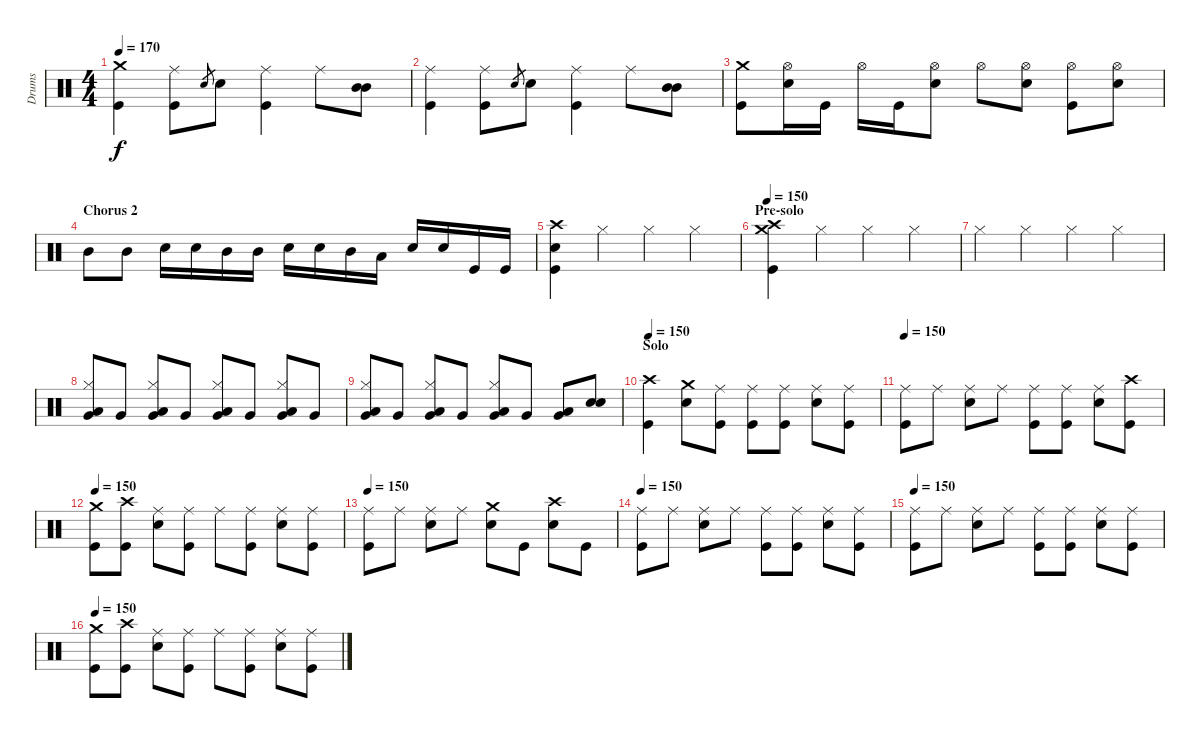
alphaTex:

\track ("Drums" "Drums") {instrument percussion}
\staff {score}
\articulation defaults
\ts (4 4)
\tempo 170
\clef neutral
\ks c
("Crash medium (hit)" "Kick (hit)").4{dy f} ("Ride (middle)" "Kick (hit)").8 "Snare (hit) 2".8{gr} "Snare (hit) 2".8 ("Ride (middle)" "Kick (hit)").4 "Ride (middle)".8 ("Mid Tom (hit)" "Mid Tom (hit)").8 |
("Ride (middle)" "Kick (hit)").4 ("Ride (middle)" "Kick (hit)").8 "Snare (hit) 2".8{gr} "Snare (hit) 2".8 ("Ride (middle)" "Kick (hit)").4 "Ride (middle)".8 ("Mid Tom (hit)" "Mid Tom (hit)").8 |
("Crash medium (hit)" "Kick (hit)").8 ("Hi-Hat (open)" "Snare (hit) 2").16 "Kick (hit)".16 "Hi-Hat (open)".16 "Kick (hit)".16 ("Hi-Hat (open)" "Snare (hit) 2").8 "Hi-Hat (open)".8 ("Hi-Hat (open)" "Snare (hit) 2").8 ("Hi-Hat (open)" "Kick (hit)").8 ("Hi-Hat (open)" "Snare (hit) 2").8 |
\section ("" "Chorus 2")
"Mid Tom (hit)".8 "Mid Tom (hit)".8 "Snare (hit) 2".16 "Snare (hit) 2".16 "Mid Tom (hit)".16 "Mid Tom (hit)".16 "Snare (hit) 2".16 "Snare (hit) 2".16 "Mid Tom (hit)".16 "Low Tom (hit)".16 "Snare (hit) 2".16 "Snare (hit) 2".16 "Kick (hit)".16 "Kick (hit)".16 |
("Crash high (hit)" "Snare (hit) 2" "Kick (hit)").4 "Hi-Hat (closed)".4{volume 9} "Hi-Hat (closed)".4{volume 9} "Hi-Hat (closed)".4{volume 9} |
\section ("" "Pre-solo")
\tempo 150
("Crash medium (hit)" "Crash high (hit)" "Kick (hit)").4 "Hi-Hat (closed)".4 "Hi-Hat (closed)".4 "Hi-Hat (closed)".4 |
"Hi-Hat (closed)".4 "Hi-Hat (closed)".4 "Hi-Hat (closed)".4 "Hi-Hat (closed)".4 |
("Hi-Hat (closed)" "Low Tom (hit)" "Very Low Tom (hit)").8 "Very Low Tom (hit)".8 ("Hi-Hat (closed)" "Low Tom (hit)" "Very Low Tom (hit)").8 "Very Low Tom (hit)".8 ("Hi-Hat (closed)" "Low Tom (hit)" "Very Low Tom (hit)").8 "Very Low Tom (hit)".8 ("Hi-Hat (closed)" "Low Tom (hit)" "Very Low Tom (hit)").8 "Very Low Tom (hit)".8 |
("Hi-Hat (closed)" "Low Tom (hit)" "Very Low Tom (hit)").8 "Very Low Tom (hit)".8 ("Hi-Hat (closed)" "Low Tom (hit)" "Very Low Tom (hit)").8 "Very Low Tom (hit)".8 ("Hi-Hat (closed)" "Low Tom (hit)" "Very Low Tom (hit)").8 "Very Low Tom (hit)".8 ("Low Tom (hit)" "Very Low Tom (hit)").8 ("Snare (hit) 2" "Snare (hit) 2").8 |
\section ("" "Solo")
\tempo 150
("Crash high (hit)" "Kick (hit)").4 ("Crash medium (hit)" "Snare (hit) 2").8 ("Ride (middle)" "Kick (hit)").8 ("Ride (middle)" "Kick (hit)").8 ("Ride (middle)" "Kick (hit)").8 ("Ride (middle)" "Snare (hit) 2").8 ("Ride (middle)" "Kick (hit)").8 |
\tempo 150
("Ride (middle)" "Kick (hit)").8 "Ride (middle)".8 ("Ride (middle)" "Snare (hit) 2").8 "Ride (middle)".8 ("Ride (middle)" "Kick (hit)").8 ("Ride (middle)" "Kick (hit)").8 ("Ride (middle)" "Snare (hit) 2").8 ("Crash high (hit)" "Kick (hit)").8 |
\tempo 150
("Crash medium (hit)" "Kick (hit)").8 ("Crash high (hit)" "Kick (hit)").8 ("Ride (middle)" "Snare (hit) 2").8 ("Ride (middle)" "Kick (hit)").8 "Ride (middle)".8 ("Ride (middle)" "Kick (hit)").8 ("Ride (middle)" "Snare (hit) 2").8 ("Ride (middle)" "Kick (hit)").8 |
\tempo 150
("Ride (middle)" "Kick (hit)").8 "Ride (middle)".8 ("Ride (middle)" "Snare (hit) 2").8 "Ride (middle)".8 ("Crash medium (hit)" "Snare (hit) 2").8 "Kick (hit)".8 ("Crash high (hit)" "Snare (hit) 2").8 "Kick (hit)".8 |
\tempo 150
("Ride (middle)" "Kick (hit)").8 "Ride (middle)".8 ("Ride (middle)" "Snare (hit) 2").8 "Ride (middle)".8 ("Ride (middle)" "Kick (hit)").8 ("Ride (middle)" "Kick (hit)").8 ("Ride (middle)" "Snare (hit) 2").8 ("Ride (middle)" "Kick (hit)").8 |
\tempo 150
("Ride (middle)" "Kick (hit)").8 "Ride (middle)".8 ("Ride (middle)" "Snare (hit) 2").8 "Ride (middle)".8 ("Ride (middle)" "Kick (hit)").8 ("Ride (middle)" "Kick (hit)").8 ("Ride (middle)" "Snare (hit) 2").8 ("Ride (middle)" "Kick (hit)").8 |
\tempo 150
("Crash medium (hit)" "Kick (hit)").8 ("Crash high (hit)" "Kick (hit)").8 ("Ride (middle)" "Snare (hit) 2").8 ("Ride (middle)" "Kick (hit)").8 "Ride (middle)".8 ("Ride (middle)" "Kick (hit)").8 ("Ride (middle)" "Snare (hit) 2").8 ("Ride (middle)" "Kick (hit)").8
